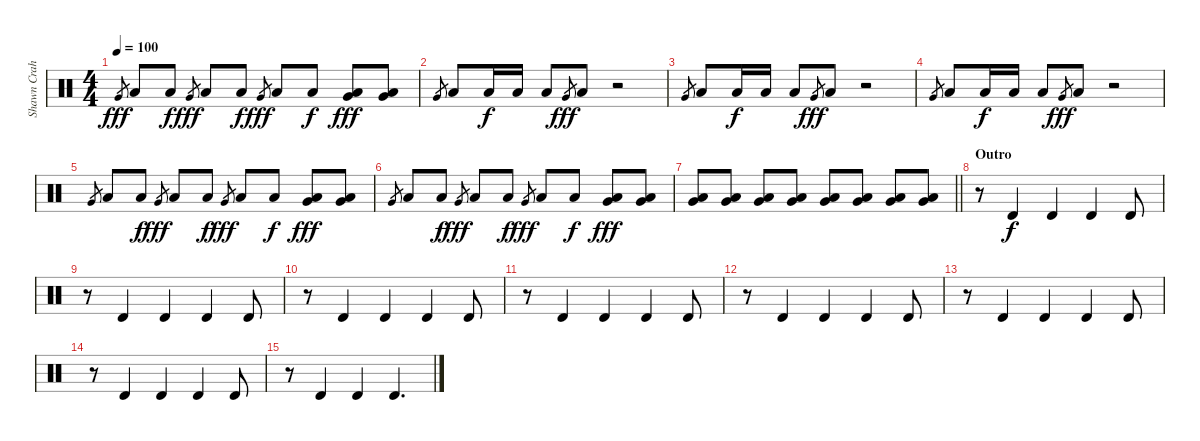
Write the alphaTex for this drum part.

\track ("Shawn Crahan" "Shawn Crah") {instrument percussion}
\staff {score}
\articulation defaults
\ts (4 4)
\tempo 100
\clef neutral
\ks c "Very Low Tom (hit)".8{gr dy fff} "Low Floor Tom (hit)".8 "Low Floor Tom (hit)".8{dy f} "Very Low Tom (hit)".8{gr dy fff} "Low Floor Tom (hit)".8 "Low Floor Tom (hit)".8{dy f} "Very Low Tom (hit)".8{gr dy fff} "Low Floor Tom (hit)".8 "Low Floor Tom (hit)".8{dy f}
("Very Low Tom (hit)" "Low Floor Tom (hit)").8{dy fff} ("Very Low Tom (hit)" "Low Floor Tom (hit)").8 |
"Very Low Tom (hit)".8{gr} "Low Floor Tom (hit)".8 "Low Floor Tom (hit)".16{dy f} "Low Floor Tom (hit)".16 "Low Floor Tom (hit)".8 "Very Low Tom (hit)".8{gr dy fff} "Low Floor Tom (hit)".8 r.2 |
"Very Low Tom (hit)".8{gr} "Low Floor Tom (hit)".8 "Low Floor Tom (hit)".16{dy f} "Low Floor Tom (hit)".16 "Low Floor Tom (hit)".8 "Very Low Tom (hit)".8{gr dy fff} "Low Floor Tom (hit)".8 r.2 |
"Very Low Tom (hit)".8{gr} "Low Floor Tom (hit)".8 "Low Floor Tom (hit)".16{dy f} "Low Floor Tom (hit)".16 "Low Floor Tom (hit)".8 "Very Low Tom (hit)".8{gr dy fff} "Low Floor Tom (hit)".8 r.2 |
"Very Low Tom (hit)".8{gr} "Low Floor Tom (hit)".8 "Low Floor Tom (hit)".8{dy f} "Very Low Tom (hit)".8{gr dy fff} "Low Floor Tom (hit)".8 "Low Floor Tom (hit)".8{dy f} "Very Low Tom (hit)".8{gr dy fff} "Low Floor Tom (hit)".8 "Low Floor Tom (hit)".8{dy f} ("Very Low Tom (hit)" "Low Floor Tom (hit)").8{dy fff} ("Very Low Tom (hit)" "Low Floor Tom (hit)").8 |
"Very Low Tom (hit)".8{gr} "Low Floor Tom (hit)".8 "Low Floor Tom (hit)".8{dy f} "Very Low Tom (hit)".8{gr dy fff} "Low Floor Tom (hit)".8 "Low Floor Tom (hit)".8{dy f} "Very Low Tom (hit)".8{gr dy fff} "Low Floor Tom (hit)".8 "Low Floor Tom (hit)".8{dy f} ("Very Low Tom (hit)" "Low Floor Tom (hit)").8{dy fff} ("Very Low Tom (hit)" "Low Floor Tom (hit)").8 |
\barLineRight lightlight
("Very Low Tom (hit)" "Low Floor Tom (hit)").8 ("Very Low Tom (hit)" "Low Floor Tom (hit)").8 ("Very Low Tom (hit)" "Low Floor Tom (hit)").8 ("Very Low Tom (hit)" "Low Floor Tom (hit)").8 ("Very Low Tom (hit)" "Low Floor Tom (hit)").8 ("Very Low Tom (hit)" "Low Floor Tom (hit)").8 ("Very Low Tom (hit)" "Low Floor Tom (hit)").8 ("Very Low Tom (hit)" "Low Floor Tom (hit)").8 |
\section ("" "Outro")
r.8 "Timbale high (hit)".4{dy f} "Timbale high (hit)".4 "Timbale high (hit)".4 "Timbale high (hit)".8 |
r.8 "Timbale high (hit)".4 "Timbale high (hit)".4 "Timbale high (hit)".4 "Timbale high (hit)".8 |
r.8 "Timbale high (hit)".4 "Timbale high (hit)".4 "Timbale high (hit)".4 "Timbale high (hit)".8 |
r.8 "Timbale high (hit)".4 "Timbale high (hit)".4 "Timbale high (hit)".4 "Timbale high (hit)".8 |
r.8 "Timbale high (hit)".4 "Timbale high (hit)".4 "Timbale high (hit)".4 "Timbale high (hit)".8 |
r.8 "Timbale high (hit)".4 "Timbale high (hit)".4 "Timbale high (hit)".4 "Timbale high (hit)".8 |
r.8 "Timbale high (hit)".4 "Timbale high (hit)".4 "Timbale high (hit)".4 "Timbale high (hit)".8 |
r.8 "Timbale high (hit)".4 "Timbale high (hit)".4 "Timbale high (hit)".4{d}
